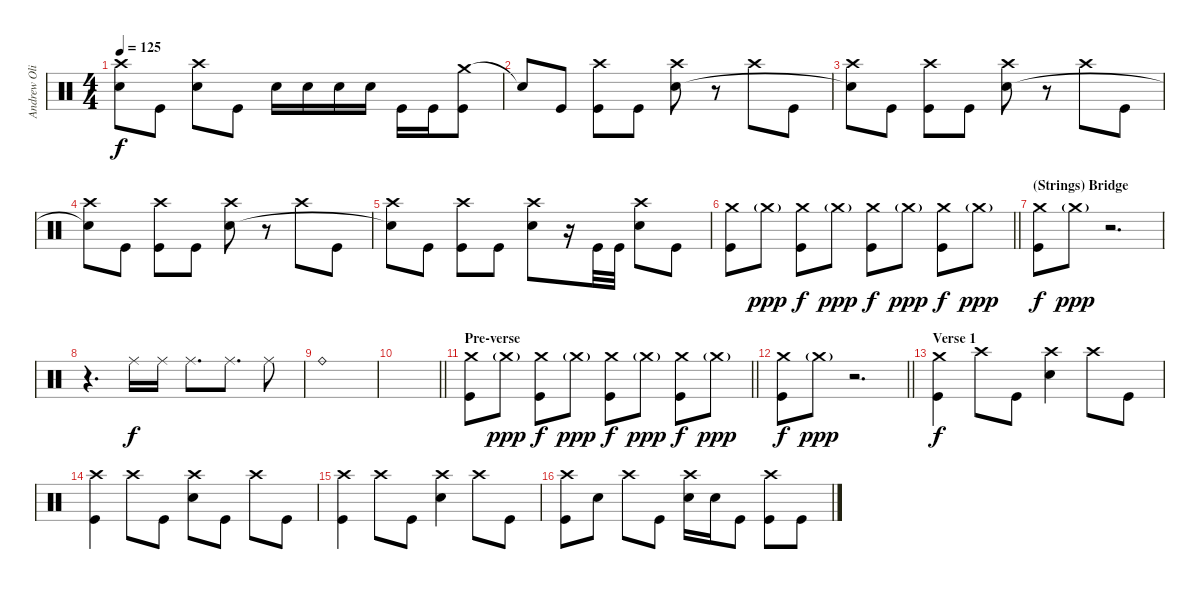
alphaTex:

\track ("Andrew Oliver" "Andrew Oli") {instrument percussion}
\staff {score}
\articulation defaults
\ts (4 4)
\tempo 125
\clef neutral
\ks c
("Crash high (hit)" "Snare (hit)"{t}).8{dy f} "Kick (hit)".8 ("Crash high (hit)" "Electric Snare (hit)").8 "Kick (hit)".8 "Electric Snare (hit)".16 "Electric Snare (hit)".16 "Electric Snare (hit)".16 "Electric Snare (hit)".16 "Kick (hit)".16 "Kick (hit)".16 ("Crash medium (hit)" "Kick (hit)").8 |
"Snare (hit)"{t}.8 "Kick (hit)".8 ("Crash high (hit)" "Kick (hit)").8 "Kick (hit)".8 ("Crash high (hit)" "Electric Snare (hit)").8 r.8 "Crash high (hit)".8 "Kick (hit)".8 |
("Crash high (hit)" "Snare (hit)"{t}).8 "Kick (hit)".8 ("Crash high (hit)" "Kick (hit)").8 "Kick (hit)".8 ("Crash high (hit)" "Electric Snare (hit)").8 r.8 "Crash high (hit)".8 "Kick (hit)".8 |
("Crash high (hit)" "Snare (hit)"{t}).8 "Kick (hit)".8 ("Crash high (hit)" "Kick (hit)").8 "Kick (hit)".8 ("Crash high (hit)" "Electric Snare (hit)").8 r.8 "Crash high (hit)".8 "Kick (hit)".8 |
("Crash high (hit)" "Snare (hit)"{t}).8 "Kick (hit)".8 ("Crash high (hit)" "Kick (hit)").8 "Kick (hit)".8 ("Crash high (hit)" "Electric Snare (hit)").8 r.16 "Kick (hit)".32 "Kick (hit)".32 ("Crash high (hit)" "Electric Snare (hit)").8 "Kick (hit)".8 |
\barLineRight lightlight
("Crash medium (hit)" "Kick (hit)").8 "Crash medium (hit)"{g}.8{dy ppp} ("Crash medium (hit)" "Kick (hit)").8{dy f} "Crash medium (hit)"{g}.8{dy ppp} ("Crash medium (hit)" "Kick (hit)").8{dy f} "Crash medium (hit)"{g}.8{dy ppp} ("Crash medium (hit)" "Kick (hit)").8{dy f} "Crash medium (hit)"{g}.8{dy ppp} |
\section ("" "(Strings) Bridge")
("Crash medium (hit)" "Kick (hit)").8{dy f} "Crash medium (hit)"{g}.8{dy ppp} r.2{d} |
r.4{d} "Ride (middle)".16{dy f} "Ride (middle)".16 "Ride (middle)".8{d} "Ride (middle)".8{d} "Ride (middle)".8 |
"Ride (bell)".1 |
\barLineRight lightlight
|
\section ("" "Pre-verse")
\barLineRight lightlight
("Crash medium (hit)" "Kick (hit)").8 "Crash medium (hit)"{g}.8{dy ppp} ("Crash medium (hit)" "Kick (hit)").8{dy f} "Crash medium (hit)"{g}.8{dy ppp} ("Crash medium (hit)" "Kick (hit)").8{dy f} "Crash medium (hit)"{g}.8{dy ppp} ("Crash medium (hit)" "Kick (hit)").8{dy f} "Crash medium (hit)"{g}.8{dy ppp} |
\barLineRight lightlight
("Crash medium (hit)" "Kick (hit)").8{dy f} "Crash medium (hit)"{g}.8{dy ppp} r.2{d} |
\section ("" "Verse 1")
("Crash medium (hit)" "Kick (hit)").4{dy f} "Crash high (hit)".8 "Kick (hit)".8 ("Crash high (hit)" "Electric Snare (hit)").4 "Crash high (hit)".8 "Kick (hit)".8 |
("Crash high (hit)" "Kick (hit)").4 "Crash high (hit)".8 "Kick (hit)".8 ("Crash high (hit)" "Electric Snare (hit)").8 "Kick (hit)".8 "Crash high (hit)".8 "Kick (hit)".8 |
("Crash high (hit)" "Kick (hit)").4 "Crash high (hit)".8 "Kick (hit)".8 ("Crash high (hit)" "Electric Snare (hit)").4 "Crash high (hit)".8 "Kick (hit)".8 |
("Crash high (hit)" "Kick (hit)").8 "Electric Snare (hit)".8 "Crash high (hit)".8 "Kick (hit)".8 ("Crash high (hit)" "Electric Snare (hit)").16 "Electric Snare (hit)".16 "Kick (hit)".8 ("Crash high (hit)" "Kick (hit)").8 "Kick (hit)".8
